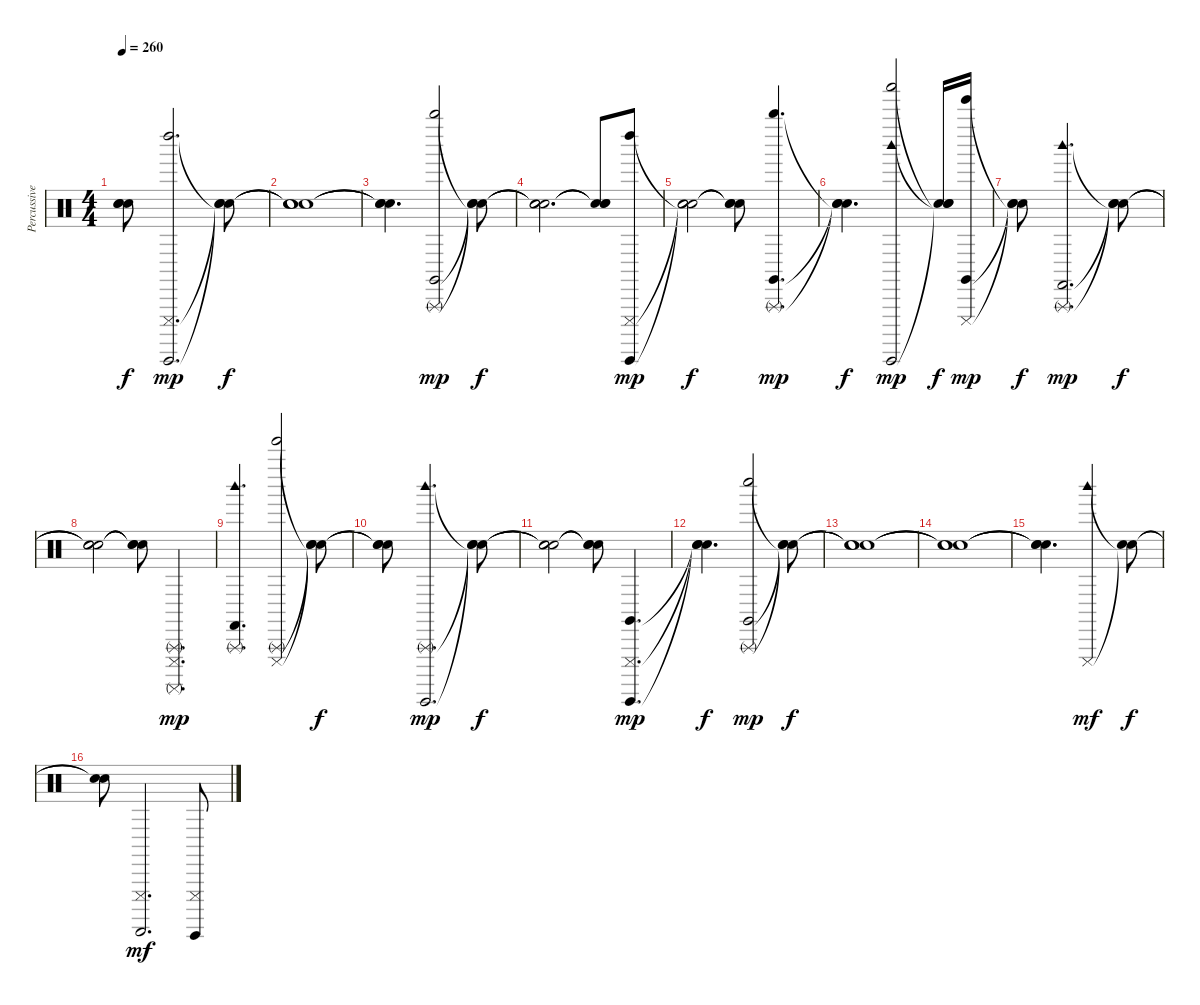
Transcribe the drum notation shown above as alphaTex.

\track ("Percussive Organ" "Percussive") {instrument percussion}
\staff {score}
\articulation defaults
\ts (4 4)
\tempo 260
\clef neutral
\ks c
("Snare (hit)"{t} "Snare (hit)"{t} "Snare (hit)"{t}).8{dy f} ("Left Maraca (hit)" "Cuica (mute)" "Guiro (hit)").2{d dy mp} ("Snare (hit)"{t} "Snare (hit)"{t} "Snare (hit)"{t}).8{dy f} |
("Snare (hit)"{t} "Snare (hit)"{t} "Snare (hit)"{t}).1 |
("Snare (hit)"{t} "Snare (hit)"{t} "Snare (hit)"{t}).4{d} ("Claves (hit)" "Whistle high (hit)" "Triangle (rnute)").2{dy mp} ("Snare (hit)"{t} "Snare (hit)"{t} "Snare (hit)"{t}).8{dy f} |
("Snare (hit)"{t} "Snare (hit)"{t} "Snare (hit)"{t}).2{d} ("Snare (hit)"{t} "Snare (hit)"{t} "Snare (hit)"{t}).8 ("Guiro (hit)" "Left Maraca (hit)" "Cuica (mute)").8{dy mp} |
("Snare (hit)"{t} "Snare (hit)"{t} "Snare (hit)"{t}).2{dy f} ("Snare (hit)"{t} "Snare (hit)"{t} "Snare (hit)"{t}).8 ("Claves (hit)" "Whistle high (hit)" "Triangle (rnute)").4{d dy mp} |
("Snare (hit)"{t} "Snare (hit)"{t} "Snare (hit)"{t}).4{d dy f} ("Woodblock high (hit)" "Guiro (hit)" "Shaker (hit)").2{dy mp} ("Snare (hit)"{t} "Snare (hit)"{t} "Snare (hit)"{t}).16{dy f} ("Claves (hit)" "Cuica (mute)" "Tinkle Bell (hit)").16{dy mp} |
("Snare (hit)"{t} "Snare (hit)"{t} "Snare (hit)"{t}).8{dy f} ("Woodblock high (hit)" "Castanets (hit)" "Triangle (rnute)").2{d dy mp} ("Snare (hit)"{t} "Snare (hit)"{t} "Snare (hit)"{t}).8{dy f} |
("Snare (hit)"{t} "Snare (hit)"{t} "Snare (hit)"{t}).2 ("Snare (hit)"{t} "Snare (hit)"{t} "Snare (hit)"{t}).8 ("Cuica (mute)" "Surdo (mute)" "Triangle (rnute)").4{d dy mp} |
("Woodblock high (hit)" "Castanets (hit)" "Triangle (rnute)").4{d} ("Cuica (mute)" "Tinkle Bell (hit)" "Triangle (rnute)").2 ("Snare (hit)"{t} "Snare (hit)"{t} "Snare (hit)"{t}).8{dy f} |
("Snare (hit)"{t} "Snare (hit)"{t} "Snare (hit)"{t}).8 ("Woodblock high (hit)" "Guiro (hit)" "Triangle (rnute)").2{d dy mp} ("Snare (hit)"{t} "Snare (hit)"{t} "Snare (hit)"{t}).8{dy f} |
("Snare (hit)"{t} "Snare (hit)"{t} "Snare (hit)"{t}).2 ("Snare (hit)"{t} "Snare (hit)"{t} "Snare (hit)"{t}).8 ("Cuica (mute)" "Guiro (hit)" "Claves (hit)").4{d dy mp} |
("Snare (hit)"{t} "Snare (hit)"{t} "Snare (hit)"{t}).4{d dy f} ("Whistle low (hit)" "Triangle (rnute)" "Claves (hit)").2{dy mp} ("Snare (hit)"{t} "Snare (hit)"{t} "Snare (hit)"{t}).8{dy f} |
("Snare (hit)"{t} "Snare (hit)"{t} "Snare (hit)"{t}).1 |
("Snare (hit)"{t} "Snare (hit)"{t} "Snare (hit)"{t}).1 |
("Snare (hit)"{t} "Snare (hit)"{t} "Snare (hit)"{t}).4{d} ("Woodblock high (hit)" "Cuica (mute)").2{dy mf} ("Snare (hit)"{t} "Snare (hit)"{t}).8{dy f} |
("Snare (hit)"{t} "Snare (hit)"{t}).8 ("Guiro (scrap-return)" "Cuica (mute)").2{d dy mf} ("Guiro (hit)" "Cuica (mute)").8
